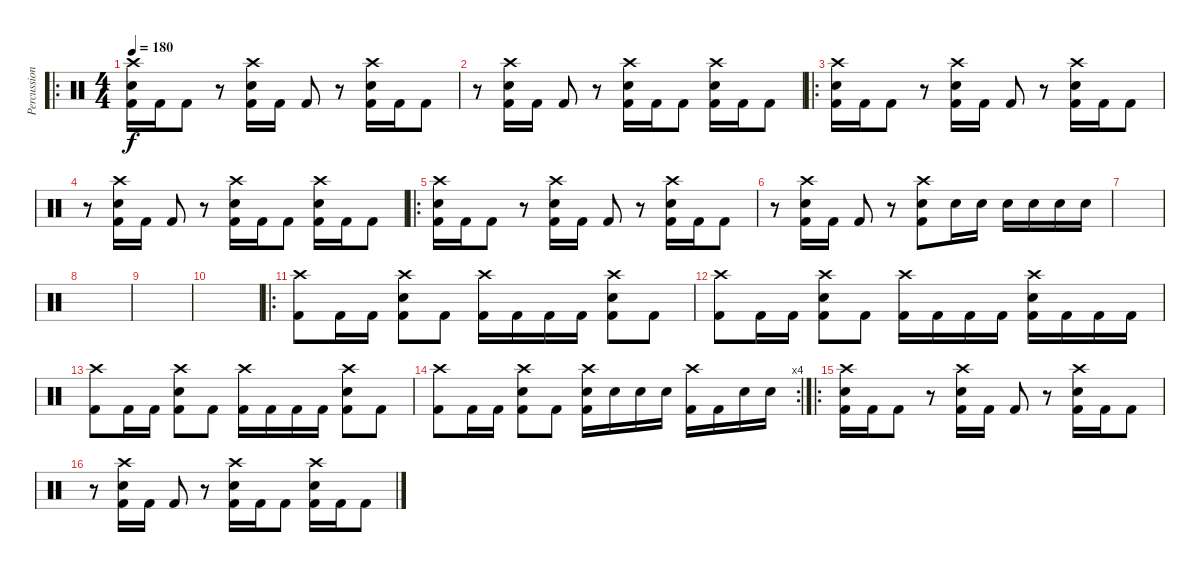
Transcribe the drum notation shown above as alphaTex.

\track ("Percussion" "Percussion") {instrument percussion}
\staff {score}
\articulation defaults
\ro
\ts (4 4)
\tempo 180
\clef neutral
\ks c
("Crash high (hit)" "Electric Snare (hit)" "Kick (hit) 2").16{dy f} "Kick (hit) 2".16 "Kick (hit) 2".8 r.8 ("Crash high (hit)" "Electric Snare (hit)" "Kick (hit) 2").16 "Kick (hit) 2".16 "Kick (hit) 2".8 r.8 ("Crash high (hit)" "Electric Snare (hit)" "Kick (hit) 2").16 "Kick (hit) 2".16 "Kick (hit) 2".8 |
r.8 ("Crash high (hit)" "Electric Snare (hit)" "Kick (hit) 2").16 "Kick (hit) 2".16 "Kick (hit) 2".8 r.8 ("Crash high (hit)" "Electric Snare (hit)" "Kick (hit) 2").16 "Kick (hit) 2".16 "Kick (hit) 2".8 ("Crash high (hit)" "Electric Snare (hit)" "Kick (hit) 2").16 "Kick (hit) 2".16 "Kick (hit) 2".8 |
\ro
("Crash high (hit)" "Electric Snare (hit)" "Kick (hit) 2").16 "Kick (hit) 2".16 "Kick (hit) 2".8 r.8 ("Crash high (hit)" "Electric Snare (hit)" "Kick (hit) 2").16 "Kick (hit) 2".16 "Kick (hit) 2".8 r.8 ("Crash high (hit)" "Electric Snare (hit)" "Kick (hit) 2").16 "Kick (hit) 2".16 "Kick (hit) 2".8 |
r.8 ("Crash high (hit)" "Electric Snare (hit)" "Kick (hit) 2").16 "Kick (hit) 2".16 "Kick (hit) 2".8 r.8 ("Crash high (hit)" "Electric Snare (hit)" "Kick (hit) 2").16 "Kick (hit) 2".16 "Kick (hit) 2".8 ("Crash high (hit)" "Electric Snare (hit)" "Kick (hit) 2").16 "Kick (hit) 2".16 "Kick (hit) 2".8 |
\ro
("Crash high (hit)" "Electric Snare (hit)" "Kick (hit) 2").16 "Kick (hit) 2".16 "Kick (hit) 2".8 r.8 ("Crash high (hit)" "Electric Snare (hit)" "Kick (hit) 2").16 "Kick (hit) 2".16 "Kick (hit) 2".8 r.8 ("Crash high (hit)" "Electric Snare (hit)" "Kick (hit) 2").16 "Kick (hit) 2".16 "Kick (hit) 2".8 |
r.8 ("Crash high (hit)" "Electric Snare (hit)" "Kick (hit) 2").16 "Kick (hit) 2".16 "Kick (hit) 2".8 r.8 ("Crash high (hit)" "Electric Snare (hit)" "Kick (hit) 2").8 "Electric Snare (hit)".16 "Electric Snare (hit)".16 "Electric Snare (hit)".16 "Electric Snare (hit)".16 "Electric Snare (hit)".16 "Electric Snare (hit)".16 |
|
|
|
|
\ro
("Crash high (hit)" "Kick (hit) 2").8 "Kick (hit) 2".16 "Kick (hit) 2".16 ("Crash high (hit)" "Electric Snare (hit)" "Kick (hit) 2").8 "Kick (hit) 2".8 ("Crash high (hit)" "Kick (hit) 2").16 "Kick (hit) 2".16 "Kick (hit) 2".16 "Kick (hit) 2".16 ("Crash high (hit)" "Electric Snare (hit)" "Kick (hit) 2").8 "Kick (hit) 2".8 |
("Crash high (hit)" "Kick (hit) 2").8 "Kick (hit) 2".16 "Kick (hit) 2".16 ("Crash high (hit)" "Electric Snare (hit)" "Kick (hit) 2").8 "Kick (hit) 2".8 ("Crash high (hit)" "Kick (hit) 2").16 "Kick (hit) 2".16 "Kick (hit) 2".16 "Kick (hit) 2".16 ("Crash high (hit)" "Electric Snare (hit)" "Kick (hit) 2").16 "Kick (hit) 2".16 "Kick (hit) 2".16 "Kick (hit) 2".16 |
("Crash high (hit)" "Kick (hit) 2").8 "Kick (hit) 2".16 "Kick (hit) 2".16 ("Crash high (hit)" "Electric Snare (hit)" "Kick (hit) 2").8 "Kick (hit) 2".8 ("Crash high (hit)" "Kick (hit) 2").16 "Kick (hit) 2".16 "Kick (hit) 2".16 "Kick (hit) 2".16 ("Crash high (hit)" "Electric Snare (hit)" "Kick (hit) 2").8 "Kick (hit) 2".8 |
\rc 4
("Crash high (hit)" "Kick (hit) 2").8 "Kick (hit) 2".16 "Kick (hit) 2".16 ("Crash high (hit)" "Electric Snare (hit)" "Kick (hit) 2").8 "Kick (hit) 2".8 ("Crash high (hit)" "Electric Snare (hit)" "Kick (hit) 2").16 "Electric Snare (hit)".16 "Electric Snare (hit)".16 "Electric Snare (hit)".16 ("Crash high (hit)" "Kick (hit) 2").16 "Kick (hit) 2".16 "Electric Snare (hit)".16 "Electric Snare (hit)".16 |
\ro
("Crash high (hit)" "Electric Snare (hit)" "Kick (hit) 2").16 "Kick (hit) 2".16 "Kick (hit) 2".8 r.8 ("Crash high (hit)" "Electric Snare (hit)" "Kick (hit) 2").16 "Kick (hit) 2".16 "Kick (hit) 2".8 r.8 ("Crash high (hit)" "Electric Snare (hit)" "Kick (hit) 2").16 "Kick (hit) 2".16 "Kick (hit) 2".8 |
r.8 ("Crash high (hit)" "Electric Snare (hit)" "Kick (hit) 2").16 "Kick (hit) 2".16 "Kick (hit) 2".8 r.8 ("Crash high (hit)" "Electric Snare (hit)" "Kick (hit) 2").16 "Kick (hit) 2".16 "Kick (hit) 2".8 ("Crash high (hit)" "Electric Snare (hit)" "Kick (hit) 2").16 "Kick (hit) 2".16 "Kick (hit) 2".8
